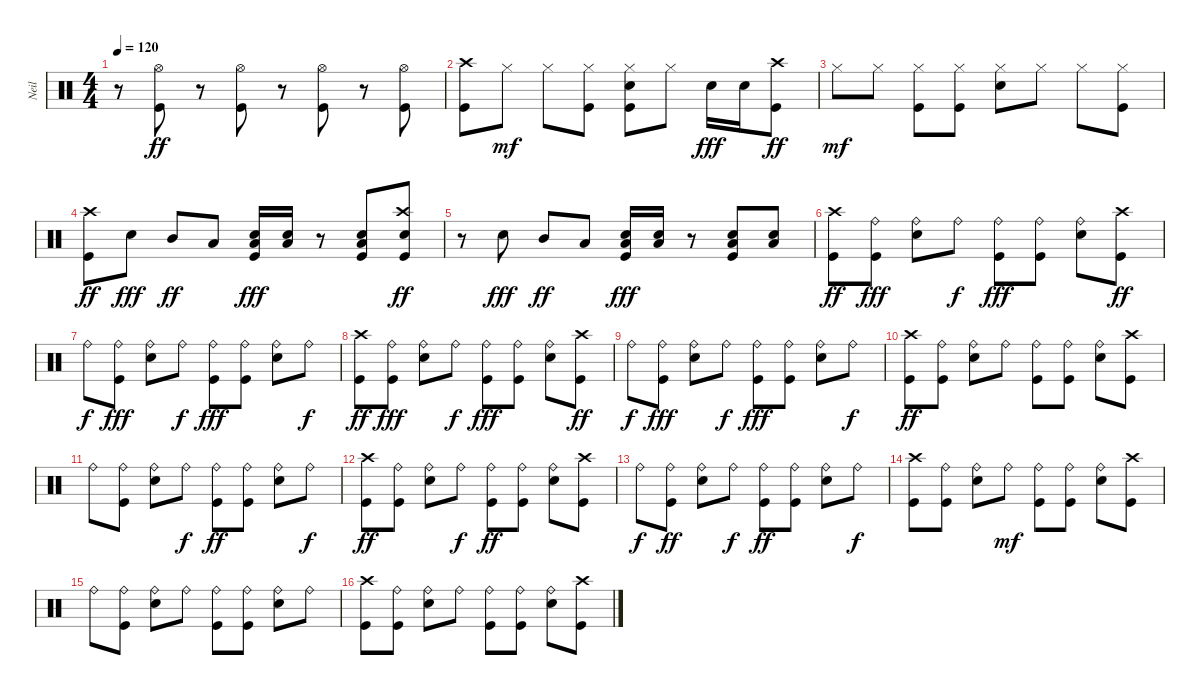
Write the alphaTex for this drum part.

\track ("Neil" "Neil") {instrument percussion}
\staff {score}
\articulation defaults
\ts (4 4)
\tempo 120
\clef neutral
\ks c
r.8{dy ff} ("Kick (hit)" "Hi-Hat (open)").8 r.8 ("Kick (hit)" "Hi-Hat (open)").8 r.8 ("Kick (hit)" "Hi-Hat (open)").8 r.8 ("Kick (hit)" "Hi-Hat (open)").8 |
("Kick (hit)" "Crash high (hit)").8 "Hi-Hat (closed)".8{dy mf} "Hi-Hat (closed)".8 ("Kick (hit)" "Hi-Hat (closed)").8 ("Kick (hit)" "Snare (hit) 2" "Hi-Hat (closed)").8 "Hi-Hat (closed)".8 "Snare (hit) 2".16{dy fff} "Snare (hit) 2".16 ("Kick (hit)" "Crash high (hit)").8{dy ff} |
"Hi-Hat (closed)".8{dy mf} "Hi-Hat (closed)".8 ("Kick (hit)" "Hi-Hat (closed)").8 ("Kick (hit)" "Hi-Hat (closed)").8 ("Snare (hit) 2" "Hi-Hat (closed)").8 "Hi-Hat (closed)".8 "Hi-Hat (closed)".8 ("Kick (hit)" "Hi-Hat (closed)").8 |
("Kick (hit)" "Crash high (hit)").8{dy ff} "Snare (hit) 2".8{dy fff} "Mid Tom (hit)".8{dy ff} "Low Tom (hit)".8 ("Kick (hit)" "Snare (hit) 2" "Low Floor Tom (hit)").16{dy fff} ("Snare (hit) 2" "Low Floor Tom (hit)").16 r.8 ("Kick (hit)" "Snare (hit) 2" "Low Floor Tom (hit)").8 ("Kick (hit)" "Snare (hit) 2" "Crash high (hit)").8{dy ff} |
r.8 "Snare (hit) 2".8{dy fff} "Mid Tom (hit)".8{dy ff} "Low Tom (hit)".8 ("Kick (hit)" "Snare (hit) 2" "Low Floor Tom (hit)").16{dy fff} ("Snare (hit) 2" "Low Floor Tom (hit)").16 r.8 ("Kick (hit)" "Snare (hit) 2" "Low Floor Tom (hit)").8 ("Snare (hit) 2" "Low Floor Tom (hit)").8 |
("Kick (hit)" "Crash high (hit)").8{dy ff} ("Kick (hit)" "Ride (bell)").8{dy fff} ("Snare (hit) 2" "Ride (bell)").8 "Ride (bell)".8{dy f} ("Kick (hit)" "Ride (bell)").8{dy fff} ("Kick (hit)" "Ride (bell)").8 ("Snare (hit) 2" "Ride (bell)").8 ("Kick (hit)" "Crash high (hit)").8{dy ff} |
"Ride (bell)".8{dy f} ("Kick (hit)" "Ride (bell)").8{dy fff} ("Snare (hit) 2" "Ride (bell)").8 "Ride (bell)".8{dy f} ("Kick (hit)" "Ride (bell)").8{dy fff} ("Kick (hit)" "Ride (bell)").8 ("Snare (hit) 2" "Ride (bell)").8 "Ride (bell)".8{dy f} |
("Kick (hit)" "Crash high (hit)").8{dy ff} ("Kick (hit)" "Ride (bell)").8{dy fff} ("Snare (hit) 2" "Ride (bell)").8 "Ride (bell)".8{dy f} ("Kick (hit)" "Ride (bell)").8{dy fff} ("Kick (hit)" "Ride (bell)").8 ("Snare (hit) 2" "Ride (bell)").8 ("Kick (hit)" "Crash high (hit)").8{dy ff} |
"Ride (bell)".8{dy f} ("Kick (hit)" "Ride (bell)").8{dy fff} ("Snare (hit) 2" "Ride (bell)").8 "Ride (bell)".8{dy f} ("Kick (hit)" "Ride (bell)").8{dy fff} ("Kick (hit)" "Ride (bell)").8 ("Snare (hit) 2" "Ride (bell)").8 "Ride (bell)".8{dy f} |
("Kick (hit)" "Crash high (hit)").8{dy ff} ("Kick (hit)" "Ride (bell)").8 ("Snare (hit) 2" "Ride (bell)").8 "Ride (bell)".8 ("Kick (hit)" "Ride (bell)").8 ("Kick (hit)" "Ride (bell)").8 ("Snare (hit) 2" "Ride (bell)").8 ("Kick (hit)" "Crash high (hit)").8 |
"Ride (bell)".8 ("Kick (hit)" "Ride (bell)").8 ("Snare (hit) 2" "Ride (bell)").8 "Ride (bell)".8{dy f} ("Kick (hit)" "Ride (bell)").8{dy ff} ("Kick (hit)" "Ride (bell)").8 ("Snare (hit) 2" "Ride (bell)").8 "Ride (bell)".8{dy f} |
("Kick (hit)" "Crash high (hit)").8{dy ff} ("Kick (hit)" "Ride (bell)").8 ("Snare (hit) 2" "Ride (bell)").8 "Ride (bell)".8{dy f} ("Kick (hit)" "Ride (bell)").8{dy ff} ("Kick (hit)" "Ride (bell)").8 ("Snare (hit) 2" "Ride (bell)").8 ("Kick (hit)" "Crash high (hit)").8 |
"Ride (bell)".8{dy f} ("Kick (hit)" "Ride (bell)").8{dy ff} ("Snare (hit) 2" "Ride (bell)").8 "Ride (bell)".8{dy f} ("Kick (hit)" "Ride (bell)").8{dy ff} ("Kick (hit)" "Ride (bell)").8 ("Snare (hit) 2" "Ride (bell)").8 "Ride (bell)".8{dy f} |
("Kick (hit)" "Crash high (hit)").8 ("Kick (hit)" "Ride (bell)").8 ("Snare (hit) 2" "Ride (bell)").8 "Ride (bell)".8{dy mf} ("Kick (hit)" "Ride (bell)").8 ("Kick (hit)" "Ride (bell)").8 ("Snare (hit) 2" "Ride (bell)").8 ("Kick (hit)" "Crash high (hit)").8 |
"Ride (bell)".8 ("Kick (hit)" "Ride (bell)").8 ("Snare (hit) 2" "Ride (bell)").8 "Ride (bell)".8 ("Kick (hit)" "Ride (bell)").8 ("Kick (hit)" "Ride (bell)").8 ("Snare (hit) 2" "Ride (bell)").8 "Ride (bell)".8 |
("Kick (hit)" "Crash high (hit)").8 ("Kick (hit)" "Ride (bell)").8 ("Snare (hit) 2" "Ride (bell)").8 "Ride (bell)".8 ("Kick (hit)" "Ride (bell)").8 ("Kick (hit)" "Ride (bell)").8 ("Snare (hit) 2" "Ride (bell)").8 ("Kick (hit)" "Crash high (hit)").8
